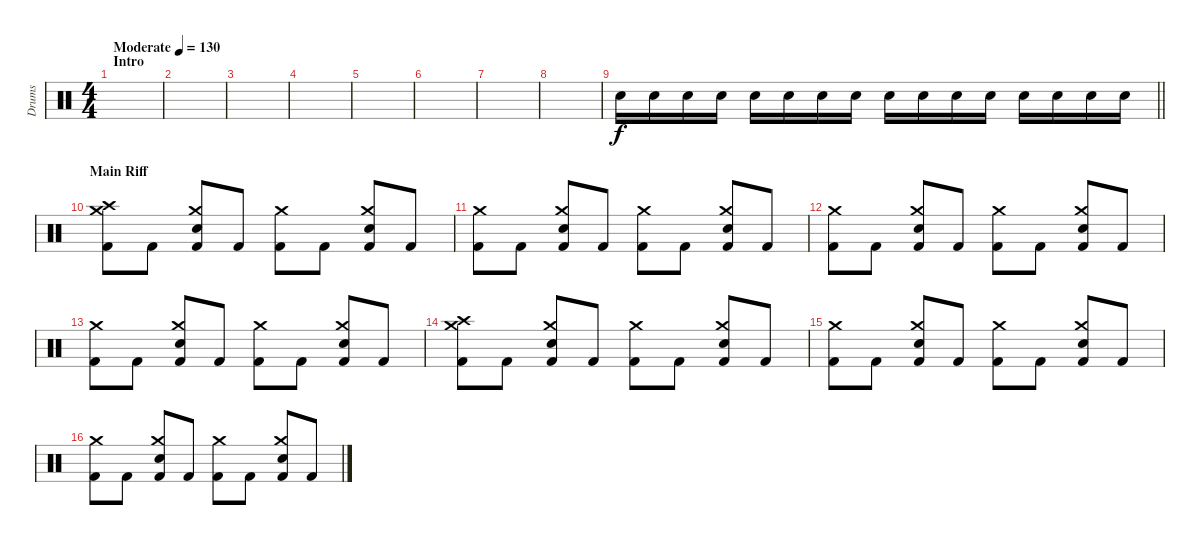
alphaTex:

\track ("Drums" "Drums") {instrument percussion}
\staff {score}
\articulation defaults
\ts (4 4)
\section ("" "Intro")
\tempo (130 "Moderate")
\clef neutral
\ks c
|
|
|
|
|
|
|
|
\barLineRight lightlight "Snare (hit) 2".16 "Snare (hit) 2".16 "Snare (hit) 2".16 "Snare (hit) 2".16 "Snare (hit) 2".16 "Snare (hit) 2".16 "Snare (hit) 2".16 "Snare (hit) 2".16 "Snare (hit) 2".16 "Snare (hit) 2".16 "Snare (hit) 2".16 "Snare (hit) 2".16 "Snare (hit) 2".16 "Snare (hit) 2".16 "Snare (hit) 2".16 "Snare (hit) 2".16
|
\section ("" "Main Riff")
("Crash medium (hit)" "Crash high (hit)" "Kick (hit) 2").8 "Kick (hit) 2".8 ("Crash medium (hit)" "Snare (hit) 2" "Kick (hit) 2").8 "Kick (hit) 2".8 ("Crash medium (hit)" "Kick (hit) 2").8 "Kick (hit) 2".8 ("Crash medium (hit)" "Snare (hit) 2" "Kick (hit) 2").8 "Kick (hit) 2".8 |
("Crash medium (hit)" "Kick (hit) 2").8 "Kick (hit) 2".8 ("Crash medium (hit)" "Snare (hit) 2" "Kick (hit) 2").8 "Kick (hit) 2".8 ("Crash medium (hit)" "Kick (hit) 2").8 "Kick (hit) 2".8 ("Crash medium (hit)" "Snare (hit) 2" "Kick (hit) 2").8 "Kick (hit) 2".8 |
("Crash medium (hit)" "Kick (hit) 2").8 "Kick (hit) 2".8 ("Crash medium (hit)" "Snare (hit) 2" "Kick (hit) 2").8 "Kick (hit) 2".8 ("Crash medium (hit)" "Kick (hit) 2").8 "Kick (hit) 2".8 ("Crash medium (hit)" "Snare (hit) 2" "Kick (hit) 2").8 "Kick (hit) 2".8 |
("Crash medium (hit)" "Kick (hit) 2").8 "Kick (hit) 2".8 ("Crash medium (hit)" "Snare (hit) 2" "Kick (hit) 2").8 "Kick (hit) 2".8 ("Crash medium (hit)" "Kick (hit) 2").8 "Kick (hit) 2".8 ("Crash medium (hit)" "Snare (hit) 2" "Kick (hit) 2").8 "Kick (hit) 2".8 |
("Crash medium (hit)" "Crash high (hit)" "Kick (hit) 2").8 "Kick (hit) 2".8 ("Crash medium (hit)" "Snare (hit) 2" "Kick (hit) 2").8 "Kick (hit) 2".8 ("Crash medium (hit)" "Kick (hit) 2").8 "Kick (hit) 2".8 ("Crash medium (hit)" "Snare (hit) 2" "Kick (hit) 2").8 "Kick (hit) 2".8 |
("Crash medium (hit)" "Kick (hit) 2").8 "Kick (hit) 2".8 ("Crash medium (hit)" "Snare (hit) 2" "Kick (hit) 2").8 "Kick (hit) 2".8 ("Crash medium (hit)" "Kick (hit) 2").8 "Kick (hit) 2".8 ("Crash medium (hit)" "Snare (hit) 2" "Kick (hit) 2").8 "Kick (hit) 2".8 |
("Crash medium (hit)" "Kick (hit) 2").8 "Kick (hit) 2".8 ("Crash medium (hit)" "Snare (hit) 2" "Kick (hit) 2").8 "Kick (hit) 2".8 ("Crash medium (hit)" "Kick (hit) 2").8 "Kick (hit) 2".8 ("Crash medium (hit)" "Snare (hit) 2" "Kick (hit) 2").8 "Kick (hit) 2".8
